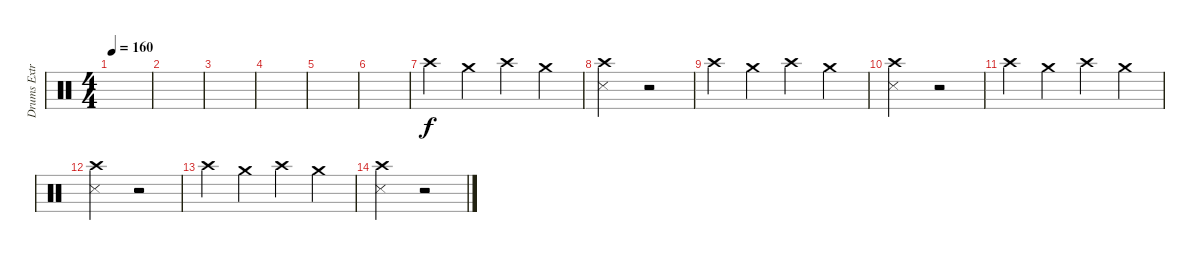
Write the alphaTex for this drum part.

\track ("Drums Extra" "Drums Extr") {instrument percussion}
\staff {score}
\articulation defaults
\ts (4 4)
\tempo 160
\clef neutral
\ks c
|
|
|
|
|
|
"Crash high (hit)".4 "Crash medium (hit)".4 "Crash high (hit)".4 "Crash medium (hit)".4 |
("Crash high (hit)" "Metronome (hit)").2 r.2 |
"Crash high (hit)".4 "Crash medium (hit)".4 "Crash high (hit)".4 "Crash medium (hit)".4 |
("Crash high (hit)" "Metronome (hit)").2 r.2 |
"Crash high (hit)".4 "Crash medium (hit)".4 "Crash high (hit)".4 "Crash medium (hit)".4 |
("Crash high (hit)" "Metronome (hit)").2 r.2 |
"Crash high (hit)".4 "Crash medium (hit)".4 "Crash high (hit)".4 "Crash medium (hit)".4 |
("Crash high (hit)" "Metronome (hit)").2 r.2
